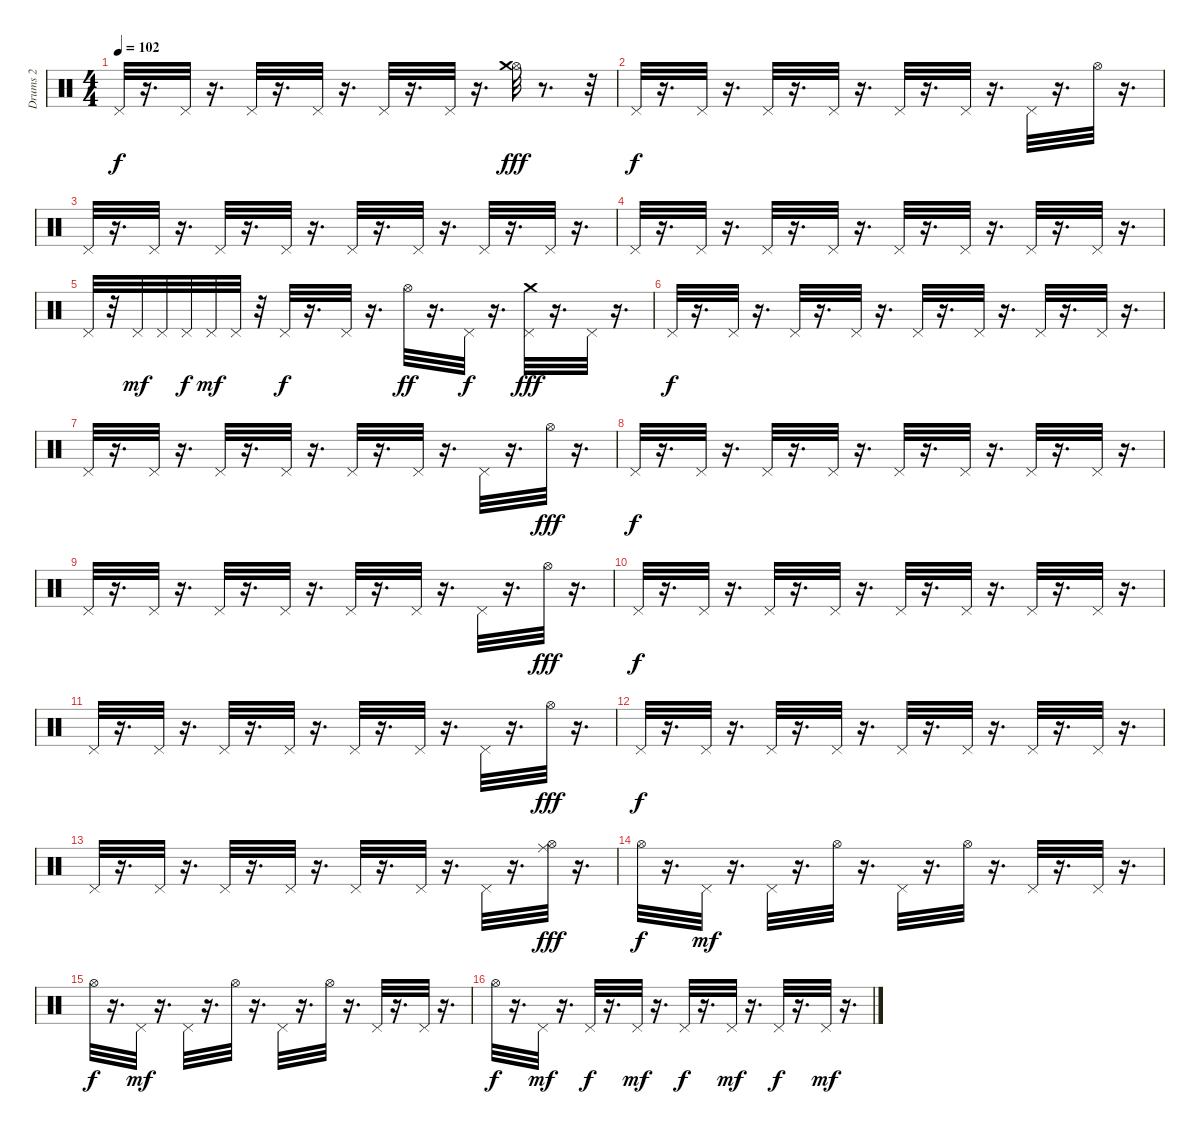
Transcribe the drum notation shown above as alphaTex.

\track ("Drums 2" "Drums 2") {instrument percussion}
\staff {score}
\articulation defaults
\ts (4 4)
\tempo 102
\clef neutral
\ks c "Pedal Hi-Hat (hit)".32{dy f}
r.16{d} "Pedal Hi-Hat (hit)".32 r.16{d} "Pedal Hi-Hat (hit)".32 r.16{d} "Pedal Hi-Hat (hit)".32 r.16{d} "Pedal Hi-Hat (hit)".32 r.16{d} "Pedal Hi-Hat (hit)".32 r.16{d} ("Hi-Hat (open)" "Crash medium (hit)").32{dy fff} r.8{d} r.32 |
"Pedal Hi-Hat (hit)".32{dy f} r.16{d} "Pedal Hi-Hat (hit)".32 r.16{d} "Pedal Hi-Hat (hit)".32 r.16{d} "Pedal Hi-Hat (hit)".32 r.16{d} "Pedal Hi-Hat (hit)".32 r.16{d} "Pedal Hi-Hat (hit)".32 r.16{d} "Pedal Hi-Hat (hit)".32 r.16{d} "Hi-Hat (open)".32 r.16{d} |
"Pedal Hi-Hat (hit)".32 r.16{d} "Pedal Hi-Hat (hit)".32 r.16{d} "Pedal Hi-Hat (hit)".32 r.16{d} "Pedal Hi-Hat (hit)".32 r.16{d} "Pedal Hi-Hat (hit)".32 r.16{d} "Pedal Hi-Hat (hit)".32 r.16{d} "Pedal Hi-Hat (hit)".32 r.16{d} "Pedal Hi-Hat (hit)".32 r.16{d} |
"Pedal Hi-Hat (hit)".32 r.16{d} "Pedal Hi-Hat (hit)".32 r.16{d} "Pedal Hi-Hat (hit)".32 r.16{d} "Pedal Hi-Hat (hit)".32 r.16{d} "Pedal Hi-Hat (hit)".32 r.16{d} "Pedal Hi-Hat (hit)".32 r.16{d} "Pedal Hi-Hat (hit)".32 r.16{d} "Pedal Hi-Hat (hit)".32 r.16{d} |
"Pedal Hi-Hat (hit)".32 r.32 "Pedal Hi-Hat (hit)".32{dy mf} "Pedal Hi-Hat (hit)".32 "Pedal Hi-Hat (hit)".32{dy f} "Pedal Hi-Hat (hit)".32{dy mf} "Pedal Hi-Hat (hit)".32 r.32 "Pedal Hi-Hat (hit)".32{dy f} r.16{d} "Pedal Hi-Hat (hit)".32 r.16{d} "Hi-Hat (open)".32{dy ff} r.16{d} "Pedal Hi-Hat (hit)".32{dy f} r.16{d} ("Pedal Hi-Hat (hit)" "Crash medium (hit)").32{dy fff} r.16{d} "Pedal Hi-Hat (hit)".32 r.16{d} |
"Pedal Hi-Hat (hit)".32{dy f} r.16{d} "Pedal Hi-Hat (hit)".32 r.16{d} "Pedal Hi-Hat (hit)".32 r.16{d} "Pedal Hi-Hat (hit)".32 r.16{d} "Pedal Hi-Hat (hit)".32 r.16{d} "Pedal Hi-Hat (hit)".32 r.16{d} "Pedal Hi-Hat (hit)".32 r.16{d} "Pedal Hi-Hat (hit)".32 r.16{d} |
"Pedal Hi-Hat (hit)".32 r.16{d} "Pedal Hi-Hat (hit)".32 r.16{d} "Pedal Hi-Hat (hit)".32 r.16{d} "Pedal Hi-Hat (hit)".32 r.16{d} "Pedal Hi-Hat (hit)".32 r.16{d} "Pedal Hi-Hat (hit)".32 r.16{d} "Pedal Hi-Hat (hit)".32 r.16{d} "Hi-Hat (open)".32{dy fff} r.16{d} |
"Pedal Hi-Hat (hit)".32{dy f} r.16{d} "Pedal Hi-Hat (hit)".32 r.16{d} "Pedal Hi-Hat (hit)".32 r.16{d} "Pedal Hi-Hat (hit)".32 r.16{d} "Pedal Hi-Hat (hit)".32 r.16{d} "Pedal Hi-Hat (hit)".32 r.16{d} "Pedal Hi-Hat (hit)".32 r.16{d} "Pedal Hi-Hat (hit)".32 r.16{d} |
"Pedal Hi-Hat (hit)".32 r.16{d} "Pedal Hi-Hat (hit)".32 r.16{d} "Pedal Hi-Hat (hit)".32 r.16{d} "Pedal Hi-Hat (hit)".32 r.16{d} "Pedal Hi-Hat (hit)".32 r.16{d} "Pedal Hi-Hat (hit)".32 r.16{d} "Pedal Hi-Hat (hit)".32 r.16{d} "Hi-Hat (open)".32{dy fff} r.16{d} |
"Pedal Hi-Hat (hit)".32{dy f} r.16{d} "Pedal Hi-Hat (hit)".32 r.16{d} "Pedal Hi-Hat (hit)".32 r.16{d} "Pedal Hi-Hat (hit)".32 r.16{d} "Pedal Hi-Hat (hit)".32 r.16{d} "Pedal Hi-Hat (hit)".32 r.16{d} "Pedal Hi-Hat (hit)".32 r.16{d} "Pedal Hi-Hat (hit)".32 r.16{d} |
"Pedal Hi-Hat (hit)".32 r.16{d} "Pedal Hi-Hat (hit)".32 r.16{d} "Pedal Hi-Hat (hit)".32 r.16{d} "Pedal Hi-Hat (hit)".32 r.16{d} "Pedal Hi-Hat (hit)".32 r.16{d} "Pedal Hi-Hat (hit)".32 r.16{d} "Pedal Hi-Hat (hit)".32 r.16{d} "Hi-Hat (open)".32{dy fff} r.16{d} |
"Pedal Hi-Hat (hit)".32{dy f} r.16{d} "Pedal Hi-Hat (hit)".32 r.16{d} "Pedal Hi-Hat (hit)".32 r.16{d} "Pedal Hi-Hat (hit)".32 r.16{d} "Pedal Hi-Hat (hit)".32 r.16{d} "Pedal Hi-Hat (hit)".32 r.16{d} "Pedal Hi-Hat (hit)".32 r.16{d} "Pedal Hi-Hat (hit)".32 r.16{d} |
"Pedal Hi-Hat (hit)".32 r.16{d} "Pedal Hi-Hat (hit)".32 r.16{d} "Pedal Hi-Hat (hit)".32 r.16{d} "Pedal Hi-Hat (hit)".32 r.16{d} "Pedal Hi-Hat (hit)".32 r.16{d} "Pedal Hi-Hat (hit)".32 r.16{d} "Pedal Hi-Hat (hit)".32 r.16{d} ("Ride (middle)" "Hi-Hat (open)").32{dy fff} r.16{d} |
"Hi-Hat (open)".32{dy f} r.16{d} "Pedal Hi-Hat (hit)".32{dy mf} r.16{d} "Pedal Hi-Hat (hit)".32 r.16{d} "Hi-Hat (open)".32 r.16{d} "Pedal Hi-Hat (hit)".32 r.16{d} "Hi-Hat (open)".32 r.16{d} "Pedal Hi-Hat (hit)".32 r.16{d} "Pedal Hi-Hat (hit)".32 r.16{d} |
"Hi-Hat (open)".32{dy f} r.16{d} "Pedal Hi-Hat (hit)".32{dy mf} r.16{d} "Pedal Hi-Hat (hit)".32 r.16{d} "Hi-Hat (open)".32 r.16{d} "Pedal Hi-Hat (hit)".32 r.16{d} "Hi-Hat (open)".32 r.16{d} "Pedal Hi-Hat (hit)".32 r.16{d} "Pedal Hi-Hat (hit)".32 r.16{d} |
"Hi-Hat (open)".32{dy f} r.16{d} "Pedal Hi-Hat (hit)".32{dy mf} r.16{d} "Pedal Hi-Hat (hit)".32{dy f} r.16{d} "Pedal Hi-Hat (hit)".32{dy mf} r.16{d} "Pedal Hi-Hat (hit)".32{dy f} r.16{d} "Pedal Hi-Hat (hit)".32{dy mf} r.16{d} "Pedal Hi-Hat (hit)".32{dy f} r.16{d} "Pedal Hi-Hat (hit)".32{dy mf} r.16{d}
